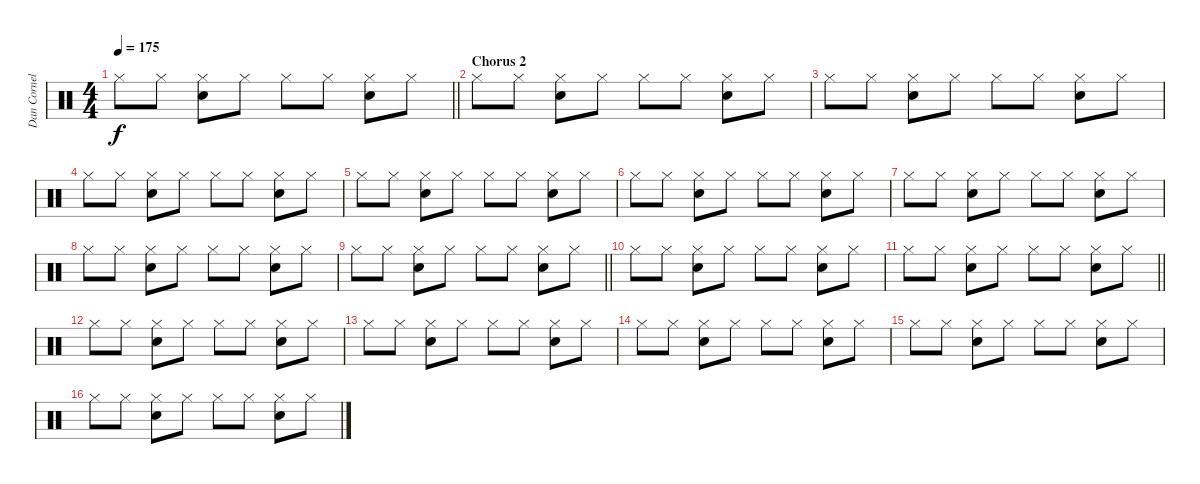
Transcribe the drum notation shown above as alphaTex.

\track ("Dan Cornelius" "Dan Cornel") {instrument percussion}
\staff {score}
\articulation defaults
\ts (4 4)
\tempo 175
\clef neutral
\barLineRight lightlight
\ks c "Hi-Hat (closed)".8{dy f} "Hi-Hat (closed)".8
("Hi-Hat (closed)" "Electric Snare (hit)").8 "Hi-Hat (closed)".8 "Hi-Hat (closed)".8 "Hi-Hat (closed)".8 ("Hi-Hat (closed)" "Electric Snare (hit)").8 "Hi-Hat (closed)".8 |
\section ("" "Chorus 2")
"Hi-Hat (closed)".8 "Hi-Hat (closed)".8 ("Hi-Hat (closed)" "Electric Snare (hit)").8 "Hi-Hat (closed)".8 "Hi-Hat (closed)".8 "Hi-Hat (closed)".8 ("Hi-Hat (closed)" "Electric Snare (hit)").8 "Hi-Hat (closed)".8 |
"Hi-Hat (closed)".8 "Hi-Hat (closed)".8 ("Hi-Hat (closed)" "Electric Snare (hit)").8 "Hi-Hat (closed)".8 "Hi-Hat (closed)".8 "Hi-Hat (closed)".8 ("Hi-Hat (closed)" "Electric Snare (hit)").8 "Hi-Hat (closed)".8 |
"Hi-Hat (closed)".8 "Hi-Hat (closed)".8 ("Hi-Hat (closed)" "Electric Snare (hit)").8 "Hi-Hat (closed)".8 "Hi-Hat (closed)".8 "Hi-Hat (closed)".8 ("Hi-Hat (closed)" "Electric Snare (hit)").8 "Hi-Hat (closed)".8 |
"Hi-Hat (closed)".8 "Hi-Hat (closed)".8 ("Hi-Hat (closed)" "Electric Snare (hit)").8 "Hi-Hat (closed)".8 "Hi-Hat (closed)".8 "Hi-Hat (closed)".8 ("Hi-Hat (closed)" "Electric Snare (hit)").8 "Hi-Hat (closed)".8 |
"Hi-Hat (closed)".8 "Hi-Hat (closed)".8 ("Hi-Hat (closed)" "Electric Snare (hit)").8 "Hi-Hat (closed)".8 "Hi-Hat (closed)".8 "Hi-Hat (closed)".8 ("Hi-Hat (closed)" "Electric Snare (hit)").8 "Hi-Hat (closed)".8 |
"Hi-Hat (closed)".8 "Hi-Hat (closed)".8 ("Hi-Hat (closed)" "Electric Snare (hit)").8 "Hi-Hat (closed)".8 "Hi-Hat (closed)".8 "Hi-Hat (closed)".8 ("Hi-Hat (closed)" "Electric Snare (hit)").8 "Hi-Hat (closed)".8 |
"Hi-Hat (closed)".8 "Hi-Hat (closed)".8 ("Hi-Hat (closed)" "Electric Snare (hit)").8 "Hi-Hat (closed)".8 "Hi-Hat (closed)".8 "Hi-Hat (closed)".8 ("Hi-Hat (closed)" "Electric Snare (hit)").8 "Hi-Hat (closed)".8 |
\barLineRight lightlight "Hi-Hat (closed)".8 "Hi-Hat (closed)".8
("Hi-Hat (closed)" "Electric Snare (hit)").8 "Hi-Hat (closed)".8 "Hi-Hat (closed)".8 "Hi-Hat (closed)".8 ("Hi-Hat (closed)" "Electric Snare (hit)").8 "Hi-Hat (closed)".8 |
"Hi-Hat (closed)".8 "Hi-Hat (closed)".8 ("Hi-Hat (closed)" "Electric Snare (hit)").8 "Hi-Hat (closed)".8 "Hi-Hat (closed)".8 "Hi-Hat (closed)".8 ("Hi-Hat (closed)" "Electric Snare (hit)").8 "Hi-Hat (closed)".8 |
\barLineRight lightlight "Hi-Hat (closed)".8 "Hi-Hat (closed)".8
("Hi-Hat (closed)" "Electric Snare (hit)").8 "Hi-Hat (closed)".8 "Hi-Hat (closed)".8 "Hi-Hat (closed)".8 ("Hi-Hat (closed)" "Electric Snare (hit)").8 "Hi-Hat (closed)".8 |
"Hi-Hat (closed)".8 "Hi-Hat (closed)".8 ("Hi-Hat (closed)" "Electric Snare (hit)").8 "Hi-Hat (closed)".8 "Hi-Hat (closed)".8 "Hi-Hat (closed)".8 ("Hi-Hat (closed)" "Electric Snare (hit)").8 "Hi-Hat (closed)".8 |
"Hi-Hat (closed)".8 "Hi-Hat (closed)".8 ("Hi-Hat (closed)" "Electric Snare (hit)").8 "Hi-Hat (closed)".8 "Hi-Hat (closed)".8 "Hi-Hat (closed)".8 ("Hi-Hat (closed)" "Electric Snare (hit)").8 "Hi-Hat (closed)".8 |
"Hi-Hat (closed)".8 "Hi-Hat (closed)".8 ("Hi-Hat (closed)" "Electric Snare (hit)").8 "Hi-Hat (closed)".8 "Hi-Hat (closed)".8 "Hi-Hat (closed)".8 ("Hi-Hat (closed)" "Electric Snare (hit)").8 "Hi-Hat (closed)".8 |
"Hi-Hat (closed)".8 "Hi-Hat (closed)".8 ("Hi-Hat (closed)" "Electric Snare (hit)").8 "Hi-Hat (closed)".8 "Hi-Hat (closed)".8 "Hi-Hat (closed)".8 ("Hi-Hat (closed)" "Electric Snare (hit)").8 "Hi-Hat (closed)".8 |
"Hi-Hat (closed)".8 "Hi-Hat (closed)".8 ("Hi-Hat (closed)" "Electric Snare (hit)").8 "Hi-Hat (closed)".8 "Hi-Hat (closed)".8 "Hi-Hat (closed)".8 ("Hi-Hat (closed)" "Electric Snare (hit)").8 "Hi-Hat (closed)".8
